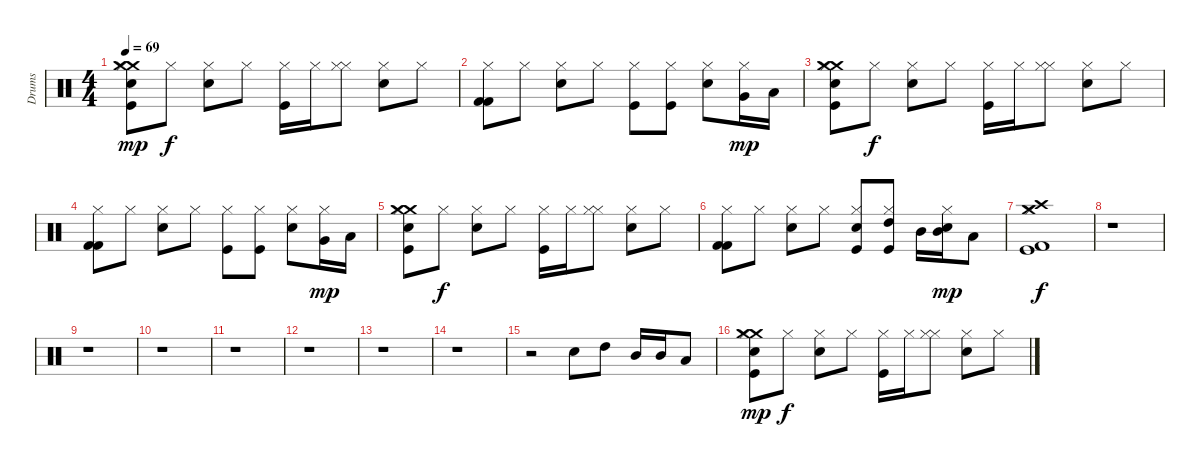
\track ("Drums" "Drums") {instrument percussion}
\staff {score}
\articulation defaults
\ts (4 4)
\tempo 69
\clef neutral
\ks c
("Kick (hit)" "Crash medium (hit)" "Electric Snare (hit)" "Crash medium (hit)" "Hi-Hat (closed)").8{dy mp} "Hi-Hat (closed)".8{dy f} ("Snare (hit) 2" "Hi-Hat (closed)").8 "Hi-Hat (closed)".8 ("Kick (hit)" "Hi-Hat (closed)").16 "Hi-Hat (closed)".16 ("Hi-Hat (closed)" "Hi-Hat (closed)").8 ("Snare (hit) 2" "Hi-Hat (closed)").8 "Hi-Hat (closed)".8 |
("Hi-Hat (closed)" "Kick (hit) 2" "Kick (hit) 2").8 "Hi-Hat (closed)".8 ("Snare (hit) 2" "Hi-Hat (closed)").8 "Hi-Hat (closed)".8 ("Kick (hit)" "Hi-Hat (closed)").8 ("Kick (hit)" "Hi-Hat (closed)").8 ("Snare (hit) 2" "Hi-Hat (closed)").8 ("Very Low Tom (hit)" "Hi-Hat (closed)").16{dy mp} "Low Floor Tom (hit)".16 |
("Kick (hit)" "Crash medium (hit)" "Electric Snare (hit)" "Crash medium (hit)" "Hi-Hat (closed)").8 "Hi-Hat (closed)".8{dy f} ("Snare (hit) 2" "Hi-Hat (closed)").8 "Hi-Hat (closed)".8 ("Kick (hit)" "Hi-Hat (closed)").16 "Hi-Hat (closed)".16 ("Hi-Hat (closed)" "Hi-Hat (closed)").8 ("Snare (hit) 2" "Hi-Hat (closed)").8 "Hi-Hat (closed)".8 |
("Hi-Hat (closed)" "Kick (hit) 2" "Kick (hit) 2").8 "Hi-Hat (closed)".8 ("Snare (hit) 2" "Hi-Hat (closed)").8 "Hi-Hat (closed)".8 ("Kick (hit)" "Hi-Hat (closed)").8 ("Kick (hit)" "Hi-Hat (closed)").8 ("Snare (hit) 2" "Hi-Hat (closed)").8 ("Very Low Tom (hit)" "Hi-Hat (closed)").16{dy mp} "Low Floor Tom (hit)".16 |
("Kick (hit)" "Crash medium (hit)" "Electric Snare (hit)" "Crash medium (hit)" "Hi-Hat (closed)").8 "Hi-Hat (closed)".8{dy f} ("Snare (hit) 2" "Hi-Hat (closed)").8 "Hi-Hat (closed)".8 ("Kick (hit)" "Hi-Hat (closed)").16 "Hi-Hat (closed)".16 ("Hi-Hat (closed)" "Hi-Hat (closed)").8 ("Snare (hit) 2" "Hi-Hat (closed)").8 "Hi-Hat (closed)".8 |
("Hi-Hat (closed)" "Kick (hit) 2" "Kick (hit) 2").8 "Hi-Hat (closed)".8 ("Snare (hit) 2" "Hi-Hat (closed)").8 "Hi-Hat (closed)".8 ("Kick (hit)" "Hi-Hat (closed)" "Snare (hit) 2").8 ("Kick (hit)" "Hi-Hat (closed)" "High Tom (hit)").8 "Mid Tom (hit)".16 ("Mid Tom (hit)" "Hi-Hat (closed)" "Snare (hit) 2").16{dy mp} "Low Tom (hit)".8 |
("Crash high (hit)" "Crash medium (hit)" "Kick (hit)" "Hi-Hat (closed)" "Kick (hit) 2").1{dy f} |
r.1 |
r.1 |
r.1 |
r.1 |
r.1 |
r.1 |
r.1 |
r.2 "Snare (hit) 2".8 "High Tom (hit)".8 "Mid Tom (hit)".16 "Mid Tom (hit)".16 "Low Tom (hit)".8 |
("Kick (hit)" "Crash medium (hit)" "Electric Snare (hit)" "Crash medium (hit)" "Hi-Hat (closed)").8{dy mp} "Hi-Hat (closed)".8{dy f} ("Snare (hit) 2" "Hi-Hat (closed)").8 "Hi-Hat (closed)".8 ("Kick (hit)" "Hi-Hat (closed)").16 "Hi-Hat (closed)".16 ("Hi-Hat (closed)" "Hi-Hat (closed)").8 ("Snare (hit) 2" "Hi-Hat (closed)").8 "Hi-Hat (closed)".8
